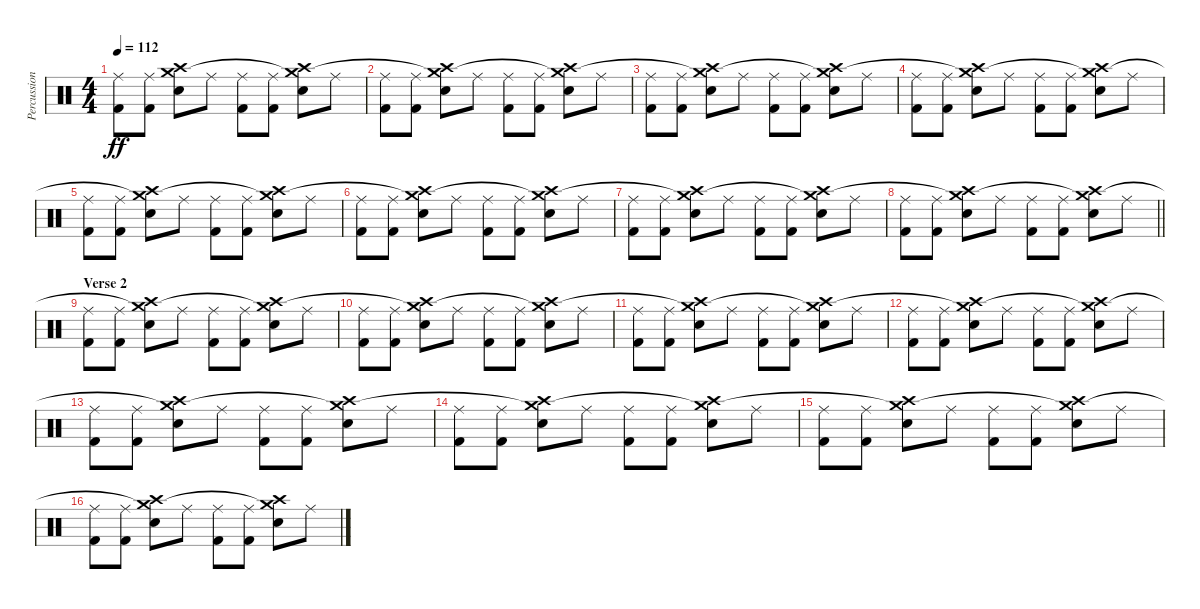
\track ("Percussion" "Percussion") {instrument percussion}
\staff {score}
\articulation defaults
\ts (4 4)
\tempo 112
\clef neutral
\ks c
("Kick (hit) 2" "Ride (middle)").8{dy ff} ("Kick (hit) 2" "Ride (middle)").8 ("Crash high (hit)" "Electric Snare (hit)" "Crash medium (hit)"{t}).8 "Ride (middle)".8 ("Kick (hit) 2" "Ride (middle)").8 ("Kick (hit) 2" "Ride (middle)").8 ("Crash high (hit)" "Electric Snare (hit)" "Crash medium (hit)"{t}).8 "Ride (middle)".8 |
("Kick (hit) 2" "Ride (middle)").8 ("Kick (hit) 2" "Ride (middle)").8 ("Crash high (hit)" "Electric Snare (hit)" "Crash medium (hit)"{t}).8 "Ride (middle)".8 ("Kick (hit) 2" "Ride (middle)").8 ("Kick (hit) 2" "Ride (middle)").8 ("Crash high (hit)" "Electric Snare (hit)" "Crash medium (hit)"{t}).8 "Ride (middle)".8 |
("Kick (hit) 2" "Ride (middle)").8 ("Kick (hit) 2" "Ride (middle)").8 ("Crash high (hit)" "Electric Snare (hit)" "Crash medium (hit)"{t}).8 "Ride (middle)".8 ("Kick (hit) 2" "Ride (middle)").8 ("Kick (hit) 2" "Ride (middle)").8 ("Crash high (hit)" "Electric Snare (hit)" "Crash medium (hit)"{t}).8 "Ride (middle)".8 |
("Kick (hit) 2" "Ride (middle)").8 ("Kick (hit) 2" "Ride (middle)").8 ("Crash high (hit)" "Electric Snare (hit)" "Crash medium (hit)"{t}).8 "Ride (middle)".8 ("Kick (hit) 2" "Ride (middle)").8 ("Kick (hit) 2" "Ride (middle)").8 ("Crash high (hit)" "Electric Snare (hit)" "Crash medium (hit)"{t}).8 "Ride (middle)".8 |
("Kick (hit) 2" "Ride (middle)").8 ("Kick (hit) 2" "Ride (middle)").8 ("Crash high (hit)" "Electric Snare (hit)" "Crash medium (hit)"{t}).8 "Ride (middle)".8 ("Kick (hit) 2" "Ride (middle)").8 ("Kick (hit) 2" "Ride (middle)").8 ("Crash high (hit)" "Electric Snare (hit)" "Crash medium (hit)"{t}).8 "Ride (middle)".8 |
("Kick (hit) 2" "Ride (middle)").8 ("Kick (hit) 2" "Ride (middle)").8 ("Crash high (hit)" "Electric Snare (hit)" "Crash medium (hit)"{t}).8 "Ride (middle)".8 ("Kick (hit) 2" "Ride (middle)").8 ("Kick (hit) 2" "Ride (middle)").8 ("Crash high (hit)" "Electric Snare (hit)" "Crash medium (hit)"{t}).8 "Ride (middle)".8 |
("Kick (hit) 2" "Ride (middle)").8 ("Kick (hit) 2" "Ride (middle)").8 ("Crash high (hit)" "Electric Snare (hit)" "Crash medium (hit)"{t}).8 "Ride (middle)".8 ("Kick (hit) 2" "Ride (middle)").8 ("Kick (hit) 2" "Ride (middle)").8 ("Crash high (hit)" "Electric Snare (hit)" "Crash medium (hit)"{t}).8 "Ride (middle)".8 |
\barLineRight lightlight
("Kick (hit) 2" "Ride (middle)").8 ("Kick (hit) 2" "Ride (middle)").8 ("Crash high (hit)" "Electric Snare (hit)" "Crash medium (hit)"{t}).8 "Ride (middle)".8 ("Kick (hit) 2" "Ride (middle)").8 ("Kick (hit) 2" "Ride (middle)").8 ("Crash high (hit)" "Electric Snare (hit)" "Crash medium (hit)"{t}).8 "Ride (middle)".8 |
\section ("" "Verse 2")
("Kick (hit) 2" "Ride (middle)").8 ("Kick (hit) 2" "Ride (middle)").8 ("Crash high (hit)" "Electric Snare (hit)" "Crash medium (hit)"{t}).8 "Ride (middle)".8 ("Kick (hit) 2" "Ride (middle)").8 ("Kick (hit) 2" "Ride (middle)").8 ("Crash high (hit)" "Electric Snare (hit)" "Crash medium (hit)"{t}).8 "Ride (middle)".8 |
("Kick (hit) 2" "Ride (middle)").8 ("Kick (hit) 2" "Ride (middle)").8 ("Crash high (hit)" "Electric Snare (hit)" "Crash medium (hit)"{t}).8 "Ride (middle)".8 ("Kick (hit) 2" "Ride (middle)").8 ("Kick (hit) 2" "Ride (middle)").8 ("Crash high (hit)" "Electric Snare (hit)" "Crash medium (hit)"{t}).8 "Ride (middle)".8 |
("Kick (hit) 2" "Ride (middle)").8 ("Kick (hit) 2" "Ride (middle)").8 ("Crash high (hit)" "Electric Snare (hit)" "Crash medium (hit)"{t}).8 "Ride (middle)".8 ("Kick (hit) 2" "Ride (middle)").8 ("Kick (hit) 2" "Ride (middle)").8 ("Crash high (hit)" "Electric Snare (hit)" "Crash medium (hit)"{t}).8 "Ride (middle)".8 |
("Kick (hit) 2" "Ride (middle)").8 ("Kick (hit) 2" "Ride (middle)").8 ("Crash high (hit)" "Electric Snare (hit)" "Crash medium (hit)"{t}).8 "Ride (middle)".8 ("Kick (hit) 2" "Ride (middle)").8 ("Kick (hit) 2" "Ride (middle)").8 ("Crash high (hit)" "Electric Snare (hit)" "Crash medium (hit)"{t}).8 "Ride (middle)".8 |
("Kick (hit) 2" "Ride (middle)").8 ("Kick (hit) 2" "Ride (middle)").8 ("Crash high (hit)" "Electric Snare (hit)" "Crash medium (hit)"{t}).8 "Ride (middle)".8 ("Kick (hit) 2" "Ride (middle)").8 ("Kick (hit) 2" "Ride (middle)").8 ("Crash high (hit)" "Electric Snare (hit)" "Crash medium (hit)"{t}).8 "Ride (middle)".8 |
("Kick (hit) 2" "Ride (middle)").8 ("Kick (hit) 2" "Ride (middle)").8 ("Crash high (hit)" "Electric Snare (hit)" "Crash medium (hit)"{t}).8 "Ride (middle)".8 ("Kick (hit) 2" "Ride (middle)").8 ("Kick (hit) 2" "Ride (middle)").8 ("Crash high (hit)" "Electric Snare (hit)" "Crash medium (hit)"{t}).8 "Ride (middle)".8 |
("Kick (hit) 2" "Ride (middle)").8 ("Kick (hit) 2" "Ride (middle)").8 ("Crash high (hit)" "Electric Snare (hit)" "Crash medium (hit)"{t}).8 "Ride (middle)".8 ("Kick (hit) 2" "Ride (middle)").8 ("Kick (hit) 2" "Ride (middle)").8 ("Crash high (hit)" "Electric Snare (hit)" "Crash medium (hit)"{t}).8 "Ride (middle)".8 |
("Kick (hit) 2" "Ride (middle)").8 ("Kick (hit) 2" "Ride (middle)").8 ("Crash high (hit)" "Electric Snare (hit)" "Crash medium (hit)"{t}).8 "Ride (middle)".8 ("Kick (hit) 2" "Ride (middle)").8 ("Kick (hit) 2" "Ride (middle)").8 ("Crash high (hit)" "Electric Snare (hit)" "Crash medium (hit)"{t}).8 "Ride (middle)".8
